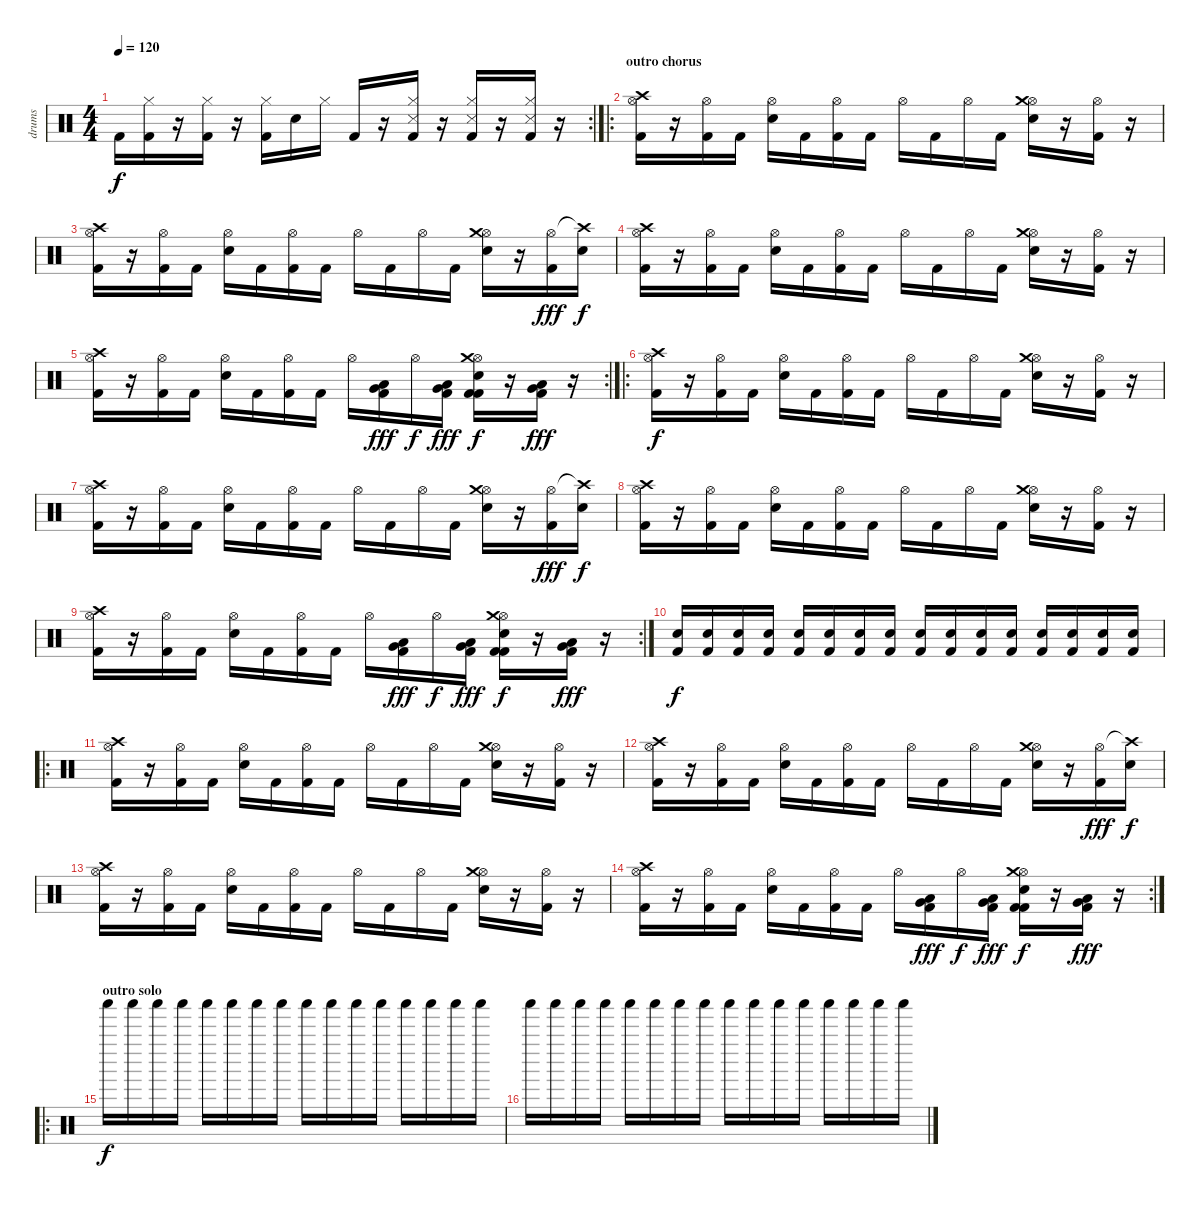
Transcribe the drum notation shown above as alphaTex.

\track ("drums" "drums") {instrument percussion}
\staff {score}
\articulation defaults
\rc 2
\ts (4 4)
\tempo 120
\clef neutral
\ks c "Kick (hit) 2".16{dy f}
("Hi-Hat (closed)" "Kick (hit) 2").16 r.16 ("Hi-Hat (closed)" "Kick (hit) 2").16 r.16 ("Hi-Hat (closed)" "Kick (hit) 2").16 "Electric Snare (hit)".16 "Hi-Hat (closed)".16 "Kick (hit) 2".16 r.16 ("Hi-Hat (closed)" "Snare (side stick) 3" "Kick (hit) 2").16 r.16 ("Hi-Hat (closed)" "Snare (side stick) 3" "Kick (hit) 2").16 r.16 ("Hi-Hat (closed)" "Snare (side stick) 3" "Kick (hit) 2").16 r.16 |
\ro
\section ("" "outro chorus")
("Hi-Hat (open)" "Crash high (hit)" "Kick (hit) 2").16 r.16 ("Hi-Hat (open)" "Kick (hit) 2").16 "Kick (hit) 2".16 ("Hi-Hat (open)" "Electric Snare (hit)").16 "Kick (hit) 2".16 ("Hi-Hat (open)" "Kick (hit) 2").16 "Kick (hit) 2".16 "Hi-Hat (open)".16 "Kick (hit) 2".16 "Hi-Hat (open)".16 "Kick (hit) 2".16 ("Hi-Hat (open)" "Crash medium (hit)" "Electric Snare (hit)").16 r.16 ("Hi-Hat (open)" "Kick (hit) 2").16 r.16 |
("Hi-Hat (open)" "Crash high (hit)" "Kick (hit) 2").16 r.16 ("Hi-Hat (open)" "Kick (hit) 2").16 "Kick (hit) 2".16 ("Hi-Hat (open)" "Electric Snare (hit)").16 "Kick (hit) 2".16 ("Hi-Hat (open)" "Kick (hit) 2").16 "Kick (hit) 2".16 "Hi-Hat (open)".16 "Kick (hit) 2".16 "Hi-Hat (open)".16 "Kick (hit) 2".16 ("Hi-Hat (open)" "Crash medium (hit)" "Electric Snare (hit)").16 r.16 ("Hi-Hat (open)" "Kick (hit) 2").16{dy fff} ("Crash high (hit)"{t} "Electric Snare (hit)").16{dy f} |
("Hi-Hat (open)" "Crash high (hit)" "Kick (hit) 2").16 r.16 ("Hi-Hat (open)" "Kick (hit) 2").16 "Kick (hit) 2".16 ("Hi-Hat (open)" "Electric Snare (hit)").16 "Kick (hit) 2".16 ("Hi-Hat (open)" "Kick (hit) 2").16 "Kick (hit) 2".16 "Hi-Hat (open)".16 "Kick (hit) 2".16 "Hi-Hat (open)".16 "Kick (hit) 2".16 ("Hi-Hat (open)" "Crash medium (hit)" "Electric Snare (hit)").16 r.16 ("Hi-Hat (open)" "Kick (hit) 2").16 r.16 |
\rc 2
("Hi-Hat (open)" "Crash high (hit)" "Kick (hit) 2").16 r.16 ("Hi-Hat (open)" "Kick (hit) 2").16 "Kick (hit) 2".16 ("Hi-Hat (open)" "Electric Snare (hit)").16 "Kick (hit) 2".16 ("Hi-Hat (open)" "Kick (hit) 2").16 "Kick (hit) 2".16 "Hi-Hat (open)".16 ("Low Floor Tom (hit)" "Very Low Tom (hit)" "Kick (hit) 2").16{dy fff} "Hi-Hat (open)".16{dy f} ("Low Floor Tom (hit)" "Very Low Tom (hit)" "Kick (hit) 2").16{dy fff} ("Hi-Hat (open)" "Crash medium (hit)" "Kick (hit) 2" "Kick (hit) 2" "Electric Snare (hit)").16{dy f} r.16 ("Low Floor Tom (hit)" "Very Low Tom (hit)" "Kick (hit) 2").16{dy fff} r.16 |
\ro
("Hi-Hat (open)" "Crash high (hit)" "Kick (hit) 2").16{dy f} r.16 ("Hi-Hat (open)" "Kick (hit) 2").16 "Kick (hit) 2".16 ("Hi-Hat (open)" "Electric Snare (hit)").16 "Kick (hit) 2".16 ("Hi-Hat (open)" "Kick (hit) 2").16 "Kick (hit) 2".16 "Hi-Hat (open)".16 "Kick (hit) 2".16 "Hi-Hat (open)".16 "Kick (hit) 2".16 ("Hi-Hat (open)" "Crash medium (hit)" "Electric Snare (hit)").16 r.16 ("Hi-Hat (open)" "Kick (hit) 2").16 r.16 |
("Hi-Hat (open)" "Crash high (hit)" "Kick (hit) 2").16 r.16 ("Hi-Hat (open)" "Kick (hit) 2").16 "Kick (hit) 2".16 ("Hi-Hat (open)" "Electric Snare (hit)").16 "Kick (hit) 2".16 ("Hi-Hat (open)" "Kick (hit) 2").16 "Kick (hit) 2".16 "Hi-Hat (open)".16 "Kick (hit) 2".16 "Hi-Hat (open)".16 "Kick (hit) 2".16 ("Hi-Hat (open)" "Crash medium (hit)" "Electric Snare (hit)").16 r.16 ("Hi-Hat (open)" "Kick (hit) 2").16{dy fff} ("Crash high (hit)"{t} "Electric Snare (hit)").16{dy f} |
("Hi-Hat (open)" "Crash high (hit)" "Kick (hit) 2").16 r.16 ("Hi-Hat (open)" "Kick (hit) 2").16 "Kick (hit) 2".16 ("Hi-Hat (open)" "Electric Snare (hit)").16 "Kick (hit) 2".16 ("Hi-Hat (open)" "Kick (hit) 2").16 "Kick (hit) 2".16 "Hi-Hat (open)".16 "Kick (hit) 2".16 "Hi-Hat (open)".16 "Kick (hit) 2".16 ("Hi-Hat (open)" "Crash medium (hit)" "Electric Snare (hit)").16 r.16 ("Hi-Hat (open)" "Kick (hit) 2").16 r.16 |
\rc 2
("Hi-Hat (open)" "Crash high (hit)" "Kick (hit) 2").16 r.16 ("Hi-Hat (open)" "Kick (hit) 2").16 "Kick (hit) 2".16 ("Hi-Hat (open)" "Electric Snare (hit)").16 "Kick (hit) 2".16 ("Hi-Hat (open)" "Kick (hit) 2").16 "Kick (hit) 2".16 "Hi-Hat (open)".16 ("Low Floor Tom (hit)" "Very Low Tom (hit)" "Kick (hit) 2").16{dy fff} "Hi-Hat (open)".16{dy f} ("Low Floor Tom (hit)" "Very Low Tom (hit)" "Kick (hit) 2").16{dy fff} ("Hi-Hat (open)" "Crash medium (hit)" "Kick (hit) 2" "Kick (hit) 2" "Electric Snare (hit)").16{dy f} r.16 ("Low Floor Tom (hit)" "Very Low Tom (hit)" "Kick (hit) 2").16{dy fff} r.16 |
("Electric Snare (hit)" "Kick (hit) 2").16{dy f} ("Electric Snare (hit)" "Kick (hit) 2").16 ("Electric Snare (hit)" "Kick (hit) 2").16 ("Electric Snare (hit)" "Kick (hit) 2").16 ("Electric Snare (hit)" "Kick (hit) 2").16 ("Electric Snare (hit)" "Kick (hit) 2").16 ("Electric Snare (hit)" "Kick (hit) 2").16 ("Electric Snare (hit)" "Kick (hit) 2").16 ("Electric Snare (hit)" "Kick (hit) 2").16 ("Electric Snare (hit)" "Kick (hit) 2").16 ("Electric Snare (hit)" "Kick (hit) 2").16 ("Electric Snare (hit)" "Kick (hit) 2").16 ("Electric Snare (hit)" "Kick (hit) 2").16 ("Electric Snare (hit)" "Kick (hit) 2").16 ("Electric Snare (hit)" "Kick (hit) 2").16 ("Electric Snare (hit)" "Kick (hit) 2").16 |
\ro
("Hi-Hat (open)" "Crash high (hit)" "Kick (hit) 2").16 r.16 ("Hi-Hat (open)" "Kick (hit) 2").16 "Kick (hit) 2".16 ("Hi-Hat (open)" "Electric Snare (hit)").16 "Kick (hit) 2".16 ("Hi-Hat (open)" "Kick (hit) 2").16 "Kick (hit) 2".16 "Hi-Hat (open)".16 "Kick (hit) 2".16 "Hi-Hat (open)".16 "Kick (hit) 2".16 ("Hi-Hat (open)" "Crash medium (hit)" "Electric Snare (hit)").16 r.16 ("Hi-Hat (open)" "Kick (hit) 2").16 r.16 |
("Hi-Hat (open)" "Crash high (hit)" "Kick (hit) 2").16 r.16 ("Hi-Hat (open)" "Kick (hit) 2").16 "Kick (hit) 2".16 ("Hi-Hat (open)" "Electric Snare (hit)").16 "Kick (hit) 2".16 ("Hi-Hat (open)" "Kick (hit) 2").16 "Kick (hit) 2".16 "Hi-Hat (open)".16 "Kick (hit) 2".16 "Hi-Hat (open)".16 "Kick (hit) 2".16 ("Hi-Hat (open)" "Crash medium (hit)" "Electric Snare (hit)").16 r.16 ("Hi-Hat (open)" "Kick (hit) 2").16{dy fff} ("Crash high (hit)"{t} "Electric Snare (hit)").16{dy f} |
("Hi-Hat (open)" "Crash high (hit)" "Kick (hit) 2").16 r.16 ("Hi-Hat (open)" "Kick (hit) 2").16 "Kick (hit) 2".16 ("Hi-Hat (open)" "Electric Snare (hit)").16 "Kick (hit) 2".16 ("Hi-Hat (open)" "Kick (hit) 2").16 "Kick (hit) 2".16 "Hi-Hat (open)".16 "Kick (hit) 2".16 "Hi-Hat (open)".16 "Kick (hit) 2".16 ("Hi-Hat (open)" "Crash medium (hit)" "Electric Snare (hit)").16 r.16 ("Hi-Hat (open)" "Kick (hit) 2").16 r.16 |
\rc 2
("Hi-Hat (open)" "Crash high (hit)" "Kick (hit) 2").16 r.16 ("Hi-Hat (open)" "Kick (hit) 2").16 "Kick (hit) 2".16 ("Hi-Hat (open)" "Electric Snare (hit)").16 "Kick (hit) 2".16 ("Hi-Hat (open)" "Kick (hit) 2").16 "Kick (hit) 2".16 "Hi-Hat (open)".16 ("Low Floor Tom (hit)" "Very Low Tom (hit)" "Kick (hit) 2").16{dy fff} "Hi-Hat (open)".16{dy f} ("Low Floor Tom (hit)" "Very Low Tom (hit)" "Kick (hit) 2").16{dy fff} ("Hi-Hat (open)" "Crash medium (hit)" "Kick (hit) 2" "Kick (hit) 2" "Electric Snare (hit)").16{dy f} r.16 ("Low Floor Tom (hit)" "Very Low Tom (hit)" "Kick (hit) 2").16{dy fff} r.16 |
\ro
\section ("" "outro solo")
"Shaker (hit)".16{dy f} "Shaker (hit)".16 "Shaker (hit)".16 "Shaker (hit)".16 "Shaker (hit)".16 "Shaker (hit)".16 "Shaker (hit)".16 "Shaker (hit)".16 "Shaker (hit)".16 "Shaker (hit)".16 "Shaker (hit)".16 "Shaker (hit)".16 "Shaker (hit)".16 "Shaker (hit)".16 "Shaker (hit)".16 "Shaker (hit)".16 |
"Shaker (hit)".16 "Shaker (hit)".16 "Shaker (hit)".16 "Shaker (hit)".16 "Shaker (hit)".16 "Shaker (hit)".16 "Shaker (hit)".16 "Shaker (hit)".16 "Shaker (hit)".16 "Shaker (hit)".16 "Shaker (hit)".16 "Shaker (hit)".16 "Shaker (hit)".16 "Shaker (hit)".16 "Shaker (hit)".16 "Shaker (hit)".16
